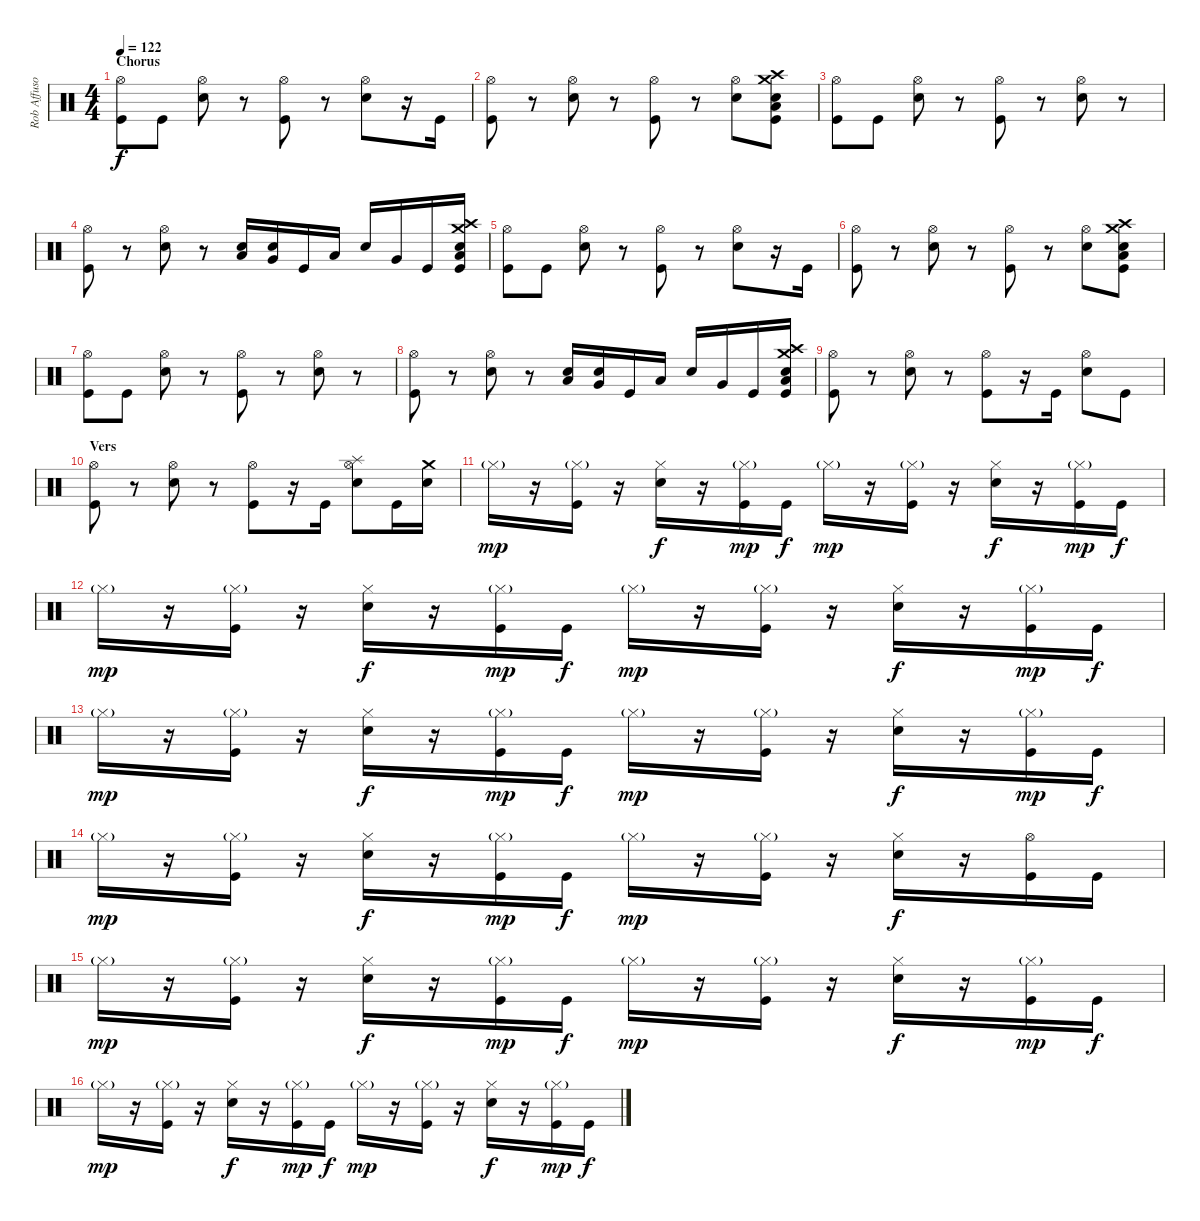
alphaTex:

\track ("Rob Affuso - Drums" "Rob Affuso") {instrument percussion}
\staff {score}
\articulation defaults
\ts (4 4)
\section ("" "Chorus")
\tempo 122
\clef neutral
\ks c
("Hi-Hat (open)" "Kick (hit)").8{dy f} "Kick (hit)".8 ("Hi-Hat (open)" "Snare (hit) 2").8 r.8 ("Hi-Hat (open)" "Kick (hit)").8 r.8 ("Hi-Hat (open)" "Snare (hit) 2").8 r.16 "Kick (hit)".16 |
("Hi-Hat (open)" "Kick (hit)").8 r.8 ("Hi-Hat (open)" "Snare (hit) 2").8 r.8 ("Hi-Hat (open)" "Kick (hit)").8 r.8 ("Hi-Hat (open)" "Snare (hit) 2").8 ("Crash medium (hit)" "Crash high (hit)" "Snare (hit) 2" "Low Floor Tom (hit)" "Kick (hit)").8 |
("Hi-Hat (open)" "Kick (hit)").8 "Kick (hit)".8 ("Hi-Hat (open)" "Snare (hit) 2").8 r.8 ("Hi-Hat (open)" "Kick (hit)").8 r.8 ("Hi-Hat (open)" "Snare (hit) 2").8 r.8 |
("Hi-Hat (open)" "Kick (hit)").8 r.8 ("Hi-Hat (open)" "Snare (hit) 2").8 r.8 ("Low Tom (hit)" "Snare (hit) 2").16 ("Very Low Tom (hit)" "Snare (hit) 2").16 "Kick (hit)".16 "Low Tom (hit)".16 "Snare (hit) 2".16 "Very Low Tom (hit)".16 "Kick (hit)".16 ("Crash high (hit)" "Crash medium (hit)" "Snare (hit) 2" "Low Floor Tom (hit)" "Kick (hit)").16 |
("Hi-Hat (open)" "Kick (hit)").8 "Kick (hit)".8 ("Hi-Hat (open)" "Snare (hit) 2").8 r.8 ("Hi-Hat (open)" "Kick (hit)").8 r.8 ("Hi-Hat (open)" "Snare (hit) 2").8 r.16 "Kick (hit)".16 |
("Hi-Hat (open)" "Kick (hit)").8 r.8 ("Hi-Hat (open)" "Snare (hit) 2").8 r.8 ("Hi-Hat (open)" "Kick (hit)").8 r.8 ("Hi-Hat (open)" "Snare (hit) 2").8 ("Crash medium (hit)" "Crash high (hit)" "Snare (hit) 2" "Low Floor Tom (hit)" "Kick (hit)").8 |
("Hi-Hat (open)" "Kick (hit)").8 "Kick (hit)".8 ("Hi-Hat (open)" "Snare (hit) 2").8 r.8 ("Hi-Hat (open)" "Kick (hit)").8 r.8 ("Hi-Hat (open)" "Snare (hit) 2").8 r.8 |
("Hi-Hat (open)" "Kick (hit)").8 r.8 ("Hi-Hat (open)" "Snare (hit) 2").8 r.8 ("Low Tom (hit)" "Snare (hit) 2").16 ("Very Low Tom (hit)" "Snare (hit) 2").16 "Kick (hit)".16 "Low Tom (hit)".16 "Snare (hit) 2".16 "Very Low Tom (hit)".16 "Kick (hit)".16 ("Crash medium (hit)" "Crash high (hit)" "Snare (hit) 2" "Low Floor Tom (hit)" "Kick (hit)").16 |
("Hi-Hat (open)" "Kick (hit)").8 r.8 ("Hi-Hat (open)" "Snare (hit) 2").8 r.8 ("Hi-Hat (open)" "Kick (hit)").8 r.16 "Kick (hit)".16 ("Hi-Hat (open)" "Snare (hit) 2").8 "Kick (hit)".8 |
\section ("" "Vers")
("Hi-Hat (open)" "Kick (hit)").8 r.8 ("Hi-Hat (open)" "Snare (hit) 2").8 r.8 ("Hi-Hat (open)" "Kick (hit)").8 r.16 "Kick (hit)".16 ("Hi-Hat (open)" "Splash (hit)" "Snare (hit) 2").8 "Kick (hit)".16 ("Crash medium (hit)" "Snare (hit) 2").16 |
"Hi-Hat (closed)"{g}.16{dy mp} r.16 ("Hi-Hat (closed)"{g} "Kick (hit)").16 r.16 ("Hi-Hat (closed)" "Snare (hit) 2").16{dy f} r.16 ("Hi-Hat (closed)"{g} "Kick (hit)").16{dy mp} "Kick (hit)".16{dy f} "Hi-Hat (closed)"{g}.16{dy mp} r.16 ("Hi-Hat (closed)"{g} "Kick (hit)").16 r.16 ("Hi-Hat (closed)" "Snare (hit) 2").16{dy f} r.16 ("Hi-Hat (closed)"{g} "Kick (hit)").16{dy mp} "Kick (hit)".16{dy f} |
"Hi-Hat (closed)"{g}.16{dy mp} r.16 ("Hi-Hat (closed)"{g} "Kick (hit)").16 r.16 ("Hi-Hat (closed)" "Snare (hit) 2").16{dy f} r.16 ("Hi-Hat (closed)"{g} "Kick (hit)").16{dy mp} "Kick (hit)".16{dy f} "Hi-Hat (closed)"{g}.16{dy mp} r.16 ("Hi-Hat (closed)"{g} "Kick (hit)").16 r.16 ("Hi-Hat (closed)" "Snare (hit) 2").16{dy f} r.16 ("Hi-Hat (closed)"{g} "Kick (hit)").16{dy mp} "Kick (hit)".16{dy f} |
"Hi-Hat (closed)"{g}.16{dy mp} r.16 ("Hi-Hat (closed)"{g} "Kick (hit)").16 r.16 ("Hi-Hat (closed)" "Snare (hit) 2").16{dy f} r.16 ("Hi-Hat (closed)"{g} "Kick (hit)").16{dy mp} "Kick (hit)".16{dy f} "Hi-Hat (closed)"{g}.16{dy mp} r.16 ("Hi-Hat (closed)"{g} "Kick (hit)").16 r.16 ("Hi-Hat (closed)" "Snare (hit) 2").16{dy f} r.16 ("Hi-Hat (closed)"{g} "Kick (hit)").16{dy mp} "Kick (hit)".16{dy f} |
"Hi-Hat (closed)"{g}.16{dy mp} r.16 ("Hi-Hat (closed)"{g} "Kick (hit)").16 r.16 ("Hi-Hat (closed)" "Snare (hit) 2").16{dy f} r.16 ("Hi-Hat (closed)"{g} "Kick (hit)").16{dy mp} "Kick (hit)".16{dy f} "Hi-Hat (closed)"{g}.16{dy mp} r.16 ("Hi-Hat (closed)"{g} "Kick (hit)").16 r.16 ("Hi-Hat (closed)" "Snare (hit) 2").16{dy f} r.16 ("Hi-Hat (open)" "Kick (hit)").16 "Kick (hit)".16 |
"Hi-Hat (closed)"{g}.16{dy mp} r.16 ("Hi-Hat (closed)"{g} "Kick (hit)").16 r.16 ("Hi-Hat (closed)" "Snare (hit) 2").16{dy f} r.16 ("Hi-Hat (closed)"{g} "Kick (hit)").16{dy mp} "Kick (hit)".16{dy f} "Hi-Hat (closed)"{g}.16{dy mp} r.16 ("Hi-Hat (closed)"{g} "Kick (hit)").16 r.16 ("Hi-Hat (closed)" "Snare (hit) 2").16{dy f} r.16 ("Hi-Hat (closed)"{g} "Kick (hit)").16{dy mp} "Kick (hit)".16{dy f} |
"Hi-Hat (closed)"{g}.16{dy mp} r.16 ("Hi-Hat (closed)"{g} "Kick (hit)").16 r.16 ("Hi-Hat (closed)" "Snare (hit) 2").16{dy f} r.16 ("Hi-Hat (closed)"{g} "Kick (hit)").16{dy mp} "Kick (hit)".16{dy f} "Hi-Hat (closed)"{g}.16{dy mp} r.16 ("Hi-Hat (closed)"{g} "Kick (hit)").16 r.16 ("Hi-Hat (closed)" "Snare (hit) 2").16{dy f} r.16 ("Hi-Hat (closed)"{g} "Kick (hit)").16{dy mp} "Kick (hit)".16{dy f}
